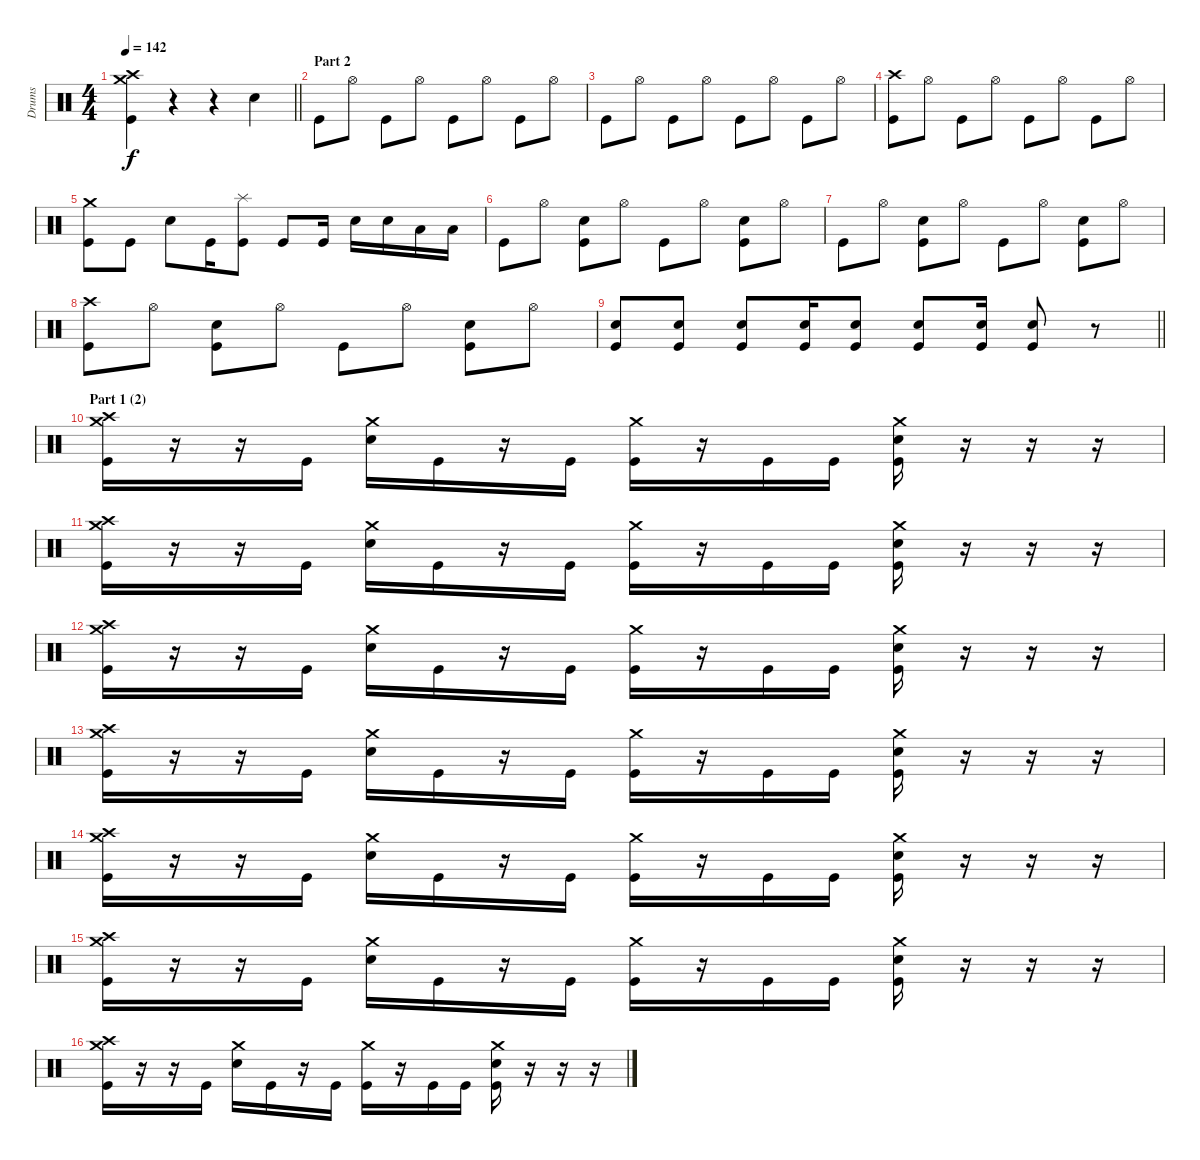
\track ("Drums" "Drums") {instrument percussion}
\staff {score}
\articulation defaults
\ts (4 4)
\tempo 142
\clef neutral
\barLineRight lightlight
\ks c
("Crash high (hit)" "Crash medium (hit)" "Kick (hit)").4{dy f} r.4 r.4 "Snare (hit) 2".4 |
\section ("" "Part 2")
"Kick (hit)".8 "Hi-Hat (open)".8 "Kick (hit)".8 "Hi-Hat (open)".8 "Kick (hit)".8 "Hi-Hat (open)".8 "Kick (hit)".8 "Hi-Hat (open)".8 |
"Kick (hit)".8 "Hi-Hat (open)".8 "Kick (hit)".8 "Hi-Hat (open)".8 "Kick (hit)".8 "Hi-Hat (open)".8 "Kick (hit)".8 "Hi-Hat (open)".8 |
("Crash high (hit)" "Kick (hit)").8 "Hi-Hat (open)".8 "Kick (hit)".8 "Hi-Hat (open)".8 "Kick (hit)".8 "Hi-Hat (open)".8 "Kick (hit)".8 "Hi-Hat (open)".8 |
("Crash medium (hit)" "Kick (hit)").8 "Kick (hit)".8 "Snare (hit) 2".8 "Kick (hit)".16 ("Splash (hit)" "Kick (hit)").8 "Kick (hit)".8 "Kick (hit)".16 "Snare (hit) 2".16 "Snare (hit) 2".16 "Low Tom (hit)".16 "Low Floor Tom (hit)".16 |
"Kick (hit)".8 "Hi-Hat (open)".8 ("Snare (hit) 2" "Kick (hit)").8 "Hi-Hat (open)".8 "Kick (hit)".8 "Hi-Hat (open)".8 ("Snare (hit) 2" "Kick (hit)").8 "Hi-Hat (open)".8 |
"Kick (hit)".8 "Hi-Hat (open)".8 ("Snare (hit) 2" "Kick (hit)").8 "Hi-Hat (open)".8 "Kick (hit)".8 "Hi-Hat (open)".8 ("Snare (hit) 2" "Kick (hit)").8 "Hi-Hat (open)".8 |
("Crash high (hit)" "Kick (hit)").8 "Hi-Hat (open)".8 ("Snare (hit) 2" "Kick (hit)").8 "Hi-Hat (open)".8 "Kick (hit)".8 "Hi-Hat (open)".8 ("Snare (hit) 2" "Kick (hit)").8 "Hi-Hat (open)".8 |
\barLineRight lightlight
("Snare (hit) 2" "Kick (hit)").8 ("Snare (hit) 2" "Kick (hit)").8 ("Snare (hit) 2" "Kick (hit)").8 ("Snare (hit) 2" "Kick (hit)").16 ("Snare (hit) 2" "Kick (hit)").8 ("Snare (hit) 2" "Kick (hit)").8 ("Snare (hit) 2" "Kick (hit)").16 ("Snare (hit) 2" "Kick (hit)").8 r.8 |
\section ("" "Part 1 (2)")
("Crash high (hit)" "Crash medium (hit)" "Kick (hit)").16 r.16 r.16 "Kick (hit)".16 ("Crash medium (hit)" "Snare (hit) 2").16 "Kick (hit)".16 r.16 "Kick (hit)".16 ("Crash medium (hit)" "Kick (hit)").16 r.16 "Kick (hit)".16 "Kick (hit)".16 ("Crash medium (hit)" "Snare (hit) 2" "Kick (hit)").16 r.16 r.16 r.16 |
("Crash high (hit)" "Crash medium (hit)" "Kick (hit)").16 r.16 r.16 "Kick (hit)".16 ("Crash medium (hit)" "Snare (hit) 2").16 "Kick (hit)".16 r.16 "Kick (hit)".16 ("Crash medium (hit)" "Kick (hit)").16 r.16 "Kick (hit)".16 "Kick (hit)".16 ("Crash medium (hit)" "Snare (hit) 2" "Kick (hit)").16 r.16 r.16 r.16 |
("Crash high (hit)" "Crash medium (hit)" "Kick (hit)").16 r.16 r.16 "Kick (hit)".16 ("Crash medium (hit)" "Snare (hit) 2").16 "Kick (hit)".16 r.16 "Kick (hit)".16 ("Crash medium (hit)" "Kick (hit)").16 r.16 "Kick (hit)".16 "Kick (hit)".16 ("Crash medium (hit)" "Snare (hit) 2" "Kick (hit)").16 r.16 r.16 r.16 |
("Crash high (hit)" "Crash medium (hit)" "Kick (hit)").16 r.16 r.16 "Kick (hit)".16 ("Crash medium (hit)" "Snare (hit) 2").16 "Kick (hit)".16 r.16 "Kick (hit)".16 ("Crash medium (hit)" "Kick (hit)").16 r.16 "Kick (hit)".16 "Kick (hit)".16 ("Crash medium (hit)" "Snare (hit) 2" "Kick (hit)").16 r.16 r.16 r.16 |
("Crash high (hit)" "Crash medium (hit)" "Kick (hit)").16 r.16 r.16 "Kick (hit)".16 ("Crash medium (hit)" "Snare (hit) 2").16 "Kick (hit)".16 r.16 "Kick (hit)".16 ("Crash medium (hit)" "Kick (hit)").16 r.16 "Kick (hit)".16 "Kick (hit)".16 ("Crash medium (hit)" "Snare (hit) 2" "Kick (hit)").16 r.16 r.16 r.16 |
("Crash high (hit)" "Crash medium (hit)" "Kick (hit)").16 r.16 r.16 "Kick (hit)".16 ("Crash medium (hit)" "Snare (hit) 2").16 "Kick (hit)".16 r.16 "Kick (hit)".16 ("Crash medium (hit)" "Kick (hit)").16 r.16 "Kick (hit)".16 "Kick (hit)".16 ("Crash medium (hit)" "Snare (hit) 2" "Kick (hit)").16 r.16 r.16 r.16 |
("Crash high (hit)" "Crash medium (hit)" "Kick (hit)").16 r.16 r.16 "Kick (hit)".16 ("Crash medium (hit)" "Snare (hit) 2").16 "Kick (hit)".16 r.16 "Kick (hit)".16 ("Crash medium (hit)" "Kick (hit)").16 r.16 "Kick (hit)".16 "Kick (hit)".16 ("Crash medium (hit)" "Snare (hit) 2" "Kick (hit)").16 r.16 r.16 r.16
